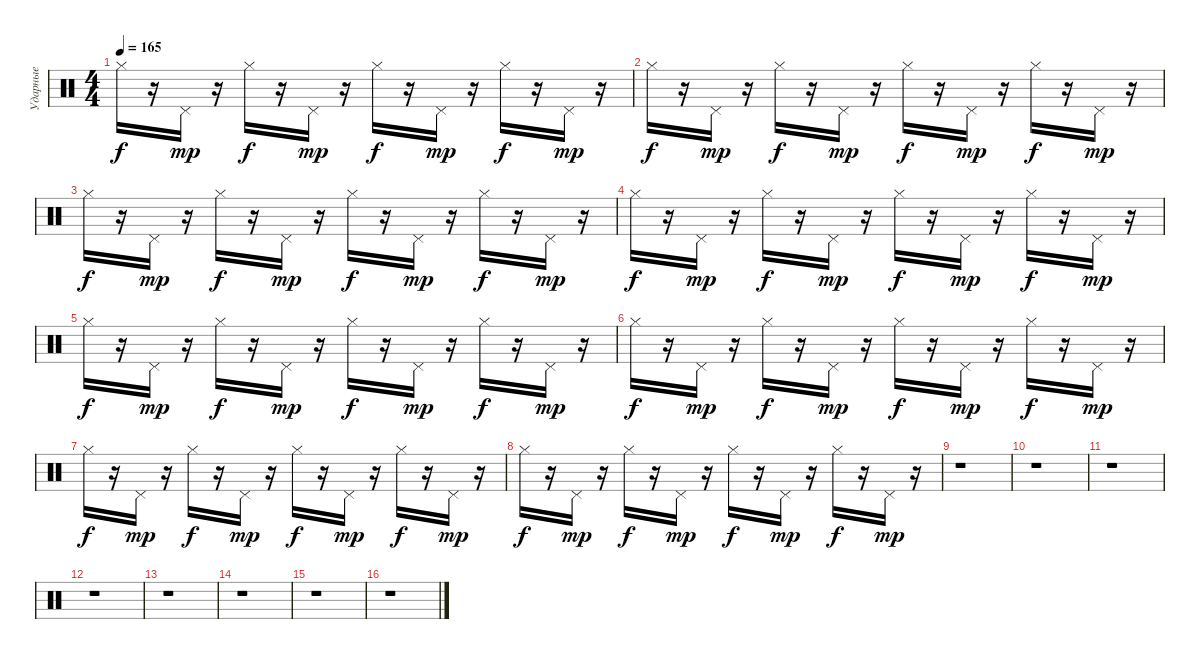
\track ("Ударные" "Ударные") {instrument percussion}
\staff {score}
\articulation defaults
\ts (4 4)
\tempo 165
\clef neutral
\ks c "Hi-Hat (closed)".16{dy f}
r.16 "Pedal Hi-Hat (hit)".16{dy mp} r.16 "Hi-Hat (closed)".16{dy f} r.16 "Pedal Hi-Hat (hit)".16{dy mp} r.16 "Hi-Hat (closed)".16{dy f} r.16 "Pedal Hi-Hat (hit)".16{dy mp} r.16 "Hi-Hat (closed)".16{dy f} r.16 "Pedal Hi-Hat (hit)".16{dy mp} r.16 |
"Hi-Hat (closed)".16{dy f} r.16 "Pedal Hi-Hat (hit)".16{dy mp} r.16 "Hi-Hat (closed)".16{dy f} r.16 "Pedal Hi-Hat (hit)".16{dy mp} r.16 "Hi-Hat (closed)".16{dy f} r.16 "Pedal Hi-Hat (hit)".16{dy mp} r.16 "Hi-Hat (closed)".16{dy f} r.16 "Pedal Hi-Hat (hit)".16{dy mp} r.16 |
"Hi-Hat (closed)".16{dy f} r.16 "Pedal Hi-Hat (hit)".16{dy mp} r.16 "Hi-Hat (closed)".16{dy f} r.16 "Pedal Hi-Hat (hit)".16{dy mp} r.16 "Hi-Hat (closed)".16{dy f} r.16 "Pedal Hi-Hat (hit)".16{dy mp} r.16 "Hi-Hat (closed)".16{dy f} r.16 "Pedal Hi-Hat (hit)".16{dy mp} r.16 |
"Hi-Hat (closed)".16{dy f} r.16 "Pedal Hi-Hat (hit)".16{dy mp} r.16 "Hi-Hat (closed)".16{dy f} r.16 "Pedal Hi-Hat (hit)".16{dy mp} r.16 "Hi-Hat (closed)".16{dy f} r.16 "Pedal Hi-Hat (hit)".16{dy mp} r.16 "Hi-Hat (closed)".16{dy f} r.16 "Pedal Hi-Hat (hit)".16{dy mp} r.16 |
"Hi-Hat (closed)".16{dy f} r.16 "Pedal Hi-Hat (hit)".16{dy mp} r.16 "Hi-Hat (closed)".16{dy f} r.16 "Pedal Hi-Hat (hit)".16{dy mp} r.16 "Hi-Hat (closed)".16{dy f} r.16 "Pedal Hi-Hat (hit)".16{dy mp} r.16 "Hi-Hat (closed)".16{dy f} r.16 "Pedal Hi-Hat (hit)".16{dy mp} r.16 |
"Hi-Hat (closed)".16{dy f} r.16 "Pedal Hi-Hat (hit)".16{dy mp} r.16 "Hi-Hat (closed)".16{dy f} r.16 "Pedal Hi-Hat (hit)".16{dy mp} r.16 "Hi-Hat (closed)".16{dy f} r.16 "Pedal Hi-Hat (hit)".16{dy mp} r.16 "Hi-Hat (closed)".16{dy f} r.16 "Pedal Hi-Hat (hit)".16{dy mp} r.16 |
"Hi-Hat (closed)".16{dy f} r.16 "Pedal Hi-Hat (hit)".16{dy mp} r.16 "Hi-Hat (closed)".16{dy f} r.16 "Pedal Hi-Hat (hit)".16{dy mp} r.16 "Hi-Hat (closed)".16{dy f} r.16 "Pedal Hi-Hat (hit)".16{dy mp} r.16 "Hi-Hat (closed)".16{dy f} r.16 "Pedal Hi-Hat (hit)".16{dy mp} r.16 |
"Hi-Hat (closed)".16{dy f} r.16 "Pedal Hi-Hat (hit)".16{dy mp} r.16 "Hi-Hat (closed)".16{dy f} r.16 "Pedal Hi-Hat (hit)".16{dy mp} r.16 "Hi-Hat (closed)".16{dy f} r.16 "Pedal Hi-Hat (hit)".16{dy mp} r.16 "Hi-Hat (closed)".16{dy f} r.16 "Pedal Hi-Hat (hit)".16{dy mp} r.16 |
r.1 |
r.1 |
r.1 |
r.1 |
r.1 |
r.1 |
r.1 |
r.1
